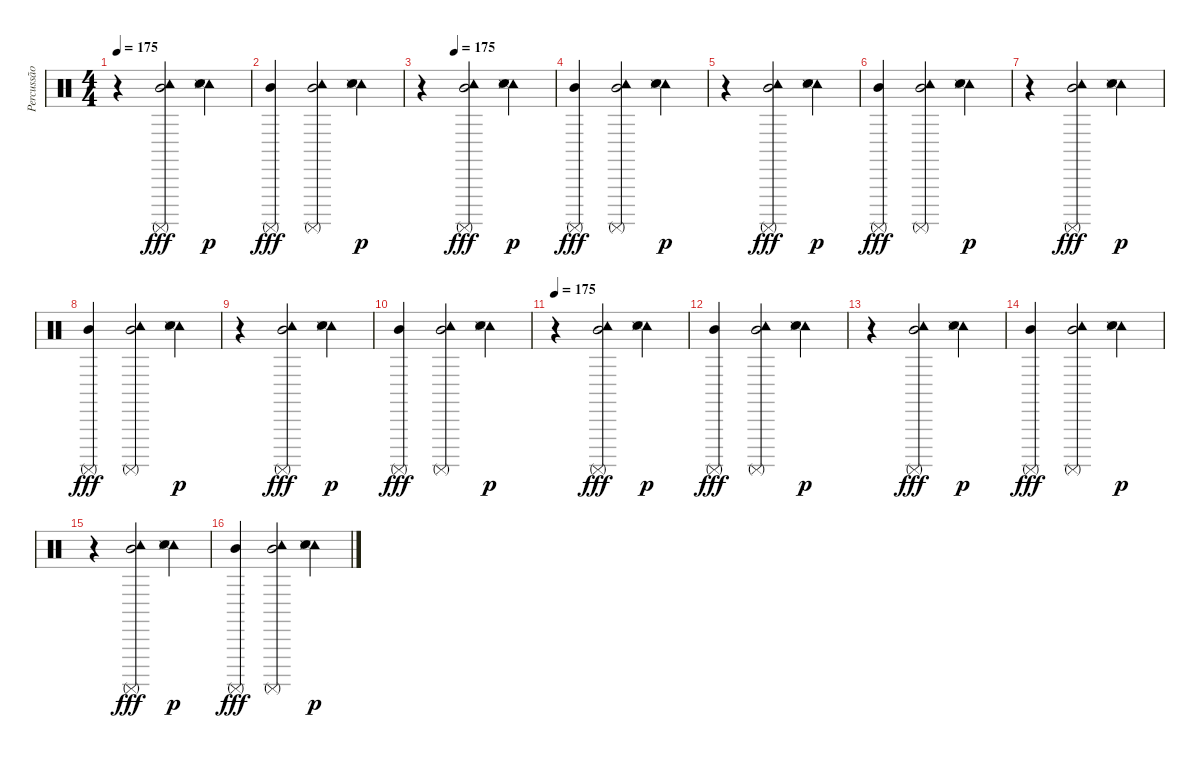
\track ("Percussão" "Percussão") {instrument percussion}
\staff {score}
\articulation defaults
\ts (4 4)
\tempo 175
\clef neutral
\ks c
r.4{dy p} ("Tambourine (hit)" "Mid Tom (hit)" "Surdo (mute)").2{dy fff} ("Tambourine (hit)" "Hand Clap (hit)" "Snare (side stick) 3").4{dy p} |
("Mid Tom (hit)" "Surdo (mute)").4{dy fff} ("Tambourine (hit)" "Mid Tom (hit)" "Surdo (mute)").2 ("Tambourine (hit)" "Hand Clap (hit)" "Snare (side stick) 3").4{dy p} |
\tempo (175 0.25)
r.4 ("Tambourine (hit)" "Mid Tom (hit)" "Surdo (mute)").2{dy fff} ("Tambourine (hit)" "Hand Clap (hit)" "Snare (side stick) 3").4{dy p} |
("Mid Tom (hit)" "Surdo (mute)").4{dy fff} ("Tambourine (hit)" "Mid Tom (hit)" "Surdo (mute)").2 ("Tambourine (hit)" "Hand Clap (hit)" "Snare (side stick) 3").4{dy p} |
r.4 ("Tambourine (hit)" "Mid Tom (hit)" "Surdo (mute)").2{dy fff} ("Tambourine (hit)" "Hand Clap (hit)" "Snare (side stick) 3").4{dy p} |
("Mid Tom (hit)" "Surdo (mute)").4{dy fff} ("Tambourine (hit)" "Mid Tom (hit)" "Surdo (mute)").2 ("Tambourine (hit)" "Hand Clap (hit)" "Snare (side stick) 3").4{dy p} |
r.4 ("Tambourine (hit)" "Mid Tom (hit)" "Surdo (mute)").2{dy fff} ("Tambourine (hit)" "Hand Clap (hit)" "Snare (side stick) 3").4{dy p} |
("Mid Tom (hit)" "Surdo (mute)").4{dy fff} ("Tambourine (hit)" "Mid Tom (hit)" "Surdo (mute)").2 ("Tambourine (hit)" "Hand Clap (hit)" "Snare (side stick) 3").4{dy p} |
r.4 ("Tambourine (hit)" "Mid Tom (hit)" "Surdo (mute)").2{dy fff} ("Tambourine (hit)" "Hand Clap (hit)" "Snare (side stick) 3").4{dy p} |
("Mid Tom (hit)" "Surdo (mute)").4{dy fff} ("Tambourine (hit)" "Mid Tom (hit)" "Surdo (mute)").2 ("Tambourine (hit)" "Hand Clap (hit)" "Snare (side stick) 3").4{dy p} |
\tempo 175
r.4 ("Tambourine (hit)" "Mid Tom (hit)" "Surdo (mute)").2{dy fff} ("Tambourine (hit)" "Hand Clap (hit)" "Snare (side stick) 3").4{dy p} |
("Mid Tom (hit)" "Surdo (mute)").4{dy fff} ("Tambourine (hit)" "Mid Tom (hit)" "Surdo (mute)").2 ("Tambourine (hit)" "Hand Clap (hit)" "Snare (side stick) 3").4{dy p} |
r.4 ("Tambourine (hit)" "Mid Tom (hit)" "Surdo (mute)").2{dy fff} ("Tambourine (hit)" "Hand Clap (hit)" "Snare (side stick) 3").4{dy p} |
("Mid Tom (hit)" "Surdo (mute)").4{dy fff} ("Tambourine (hit)" "Mid Tom (hit)" "Surdo (mute)").2 ("Tambourine (hit)" "Hand Clap (hit)" "Snare (side stick) 3").4{dy p} |
r.4 ("Tambourine (hit)" "Mid Tom (hit)" "Surdo (mute)").2{dy fff} ("Tambourine (hit)" "Hand Clap (hit)" "Snare (side stick) 3").4{dy p} |
("Mid Tom (hit)" "Surdo (mute)").4{dy fff} ("Tambourine (hit)" "Mid Tom (hit)" "Surdo (mute)").2 ("Tambourine (hit)" "Hand Clap (hit)" "Snare (side stick) 3").4{dy p}
